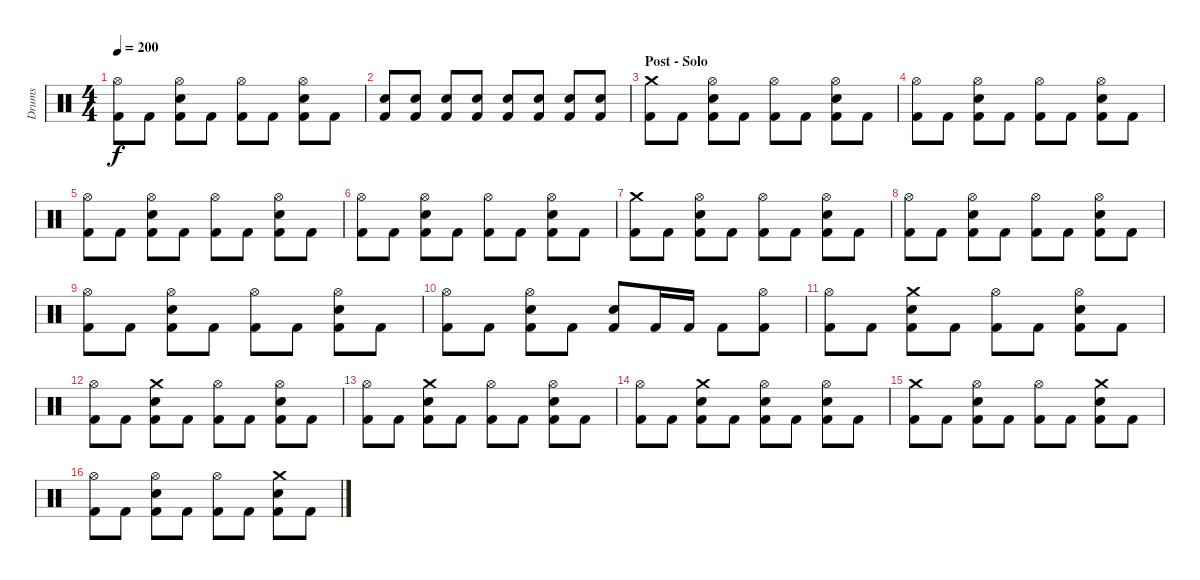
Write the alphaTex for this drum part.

\track ("Drums" "Drums") {instrument percussion}
\staff {score}
\articulation defaults
\ts (4 4)
\tempo 200
\clef neutral
\ks c
("Hi-Hat (open)" "Kick (hit) 2").8{dy f} "Kick (hit) 2".8 ("Hi-Hat (open)" "Snare (hit) 2" "Kick (hit) 2").8 "Kick (hit) 2".8 ("Hi-Hat (open)" "Kick (hit) 2").8 "Kick (hit) 2".8 ("Hi-Hat (open)" "Snare (hit) 2" "Kick (hit) 2").8 "Kick (hit) 2".8 |
("Snare (hit) 2" "Kick (hit) 2").8 ("Snare (hit) 2" "Kick (hit) 2").8 ("Snare (hit) 2" "Kick (hit) 2").8 ("Snare (hit) 2" "Kick (hit) 2").8 ("Snare (hit) 2" "Kick (hit) 2").8 ("Snare (hit) 2" "Kick (hit) 2").8 ("Snare (hit) 2" "Kick (hit) 2").8 ("Snare (hit) 2" "Kick (hit) 2").8 |
\section ("" "Post - Solo")
("Crash medium (hit)" "Kick (hit) 2").8 "Kick (hit) 2".8 ("Hi-Hat (open)" "Snare (hit) 2" "Kick (hit) 2").8 "Kick (hit) 2".8 ("Hi-Hat (open)" "Kick (hit) 2").8 "Kick (hit) 2".8 ("Hi-Hat (open)" "Snare (hit) 2" "Kick (hit) 2").8 "Kick (hit) 2".8 |
("Hi-Hat (open)" "Kick (hit) 2").8 "Kick (hit) 2".8 ("Hi-Hat (open)" "Snare (hit) 2" "Kick (hit) 2").8 "Kick (hit) 2".8 ("Hi-Hat (open)" "Kick (hit) 2").8 "Kick (hit) 2".8 ("Hi-Hat (open)" "Snare (hit) 2" "Kick (hit) 2").8 "Kick (hit) 2".8 |
("Hi-Hat (open)" "Kick (hit) 2").8 "Kick (hit) 2".8 ("Hi-Hat (open)" "Snare (hit) 2" "Kick (hit) 2").8 "Kick (hit) 2".8 ("Hi-Hat (open)" "Kick (hit) 2").8 "Kick (hit) 2".8 ("Hi-Hat (open)" "Snare (hit) 2" "Kick (hit) 2").8 "Kick (hit) 2".8 |
("Hi-Hat (open)" "Kick (hit) 2").8 "Kick (hit) 2".8 ("Hi-Hat (open)" "Snare (hit) 2" "Kick (hit) 2").8 "Kick (hit) 2".8 ("Hi-Hat (open)" "Kick (hit) 2").8 "Kick (hit) 2".8 ("Hi-Hat (open)" "Snare (hit) 2" "Kick (hit) 2").8 "Kick (hit) 2".8 |
("Crash medium (hit)" "Kick (hit) 2").8 "Kick (hit) 2".8 ("Hi-Hat (open)" "Snare (hit) 2" "Kick (hit) 2").8 "Kick (hit) 2".8 ("Hi-Hat (open)" "Kick (hit) 2").8 "Kick (hit) 2".8 ("Hi-Hat (open)" "Snare (hit) 2" "Kick (hit) 2").8 "Kick (hit) 2".8 |
("Hi-Hat (open)" "Kick (hit) 2").8 "Kick (hit) 2".8 ("Hi-Hat (open)" "Snare (hit) 2" "Kick (hit) 2").8 "Kick (hit) 2".8 ("Hi-Hat (open)" "Kick (hit) 2").8 "Kick (hit) 2".8 ("Hi-Hat (open)" "Snare (hit) 2" "Kick (hit) 2").8 "Kick (hit) 2".8 |
("Hi-Hat (open)" "Kick (hit) 2").8 "Kick (hit) 2".8 ("Hi-Hat (open)" "Snare (hit) 2" "Kick (hit) 2").8 "Kick (hit) 2".8 ("Hi-Hat (open)" "Kick (hit) 2").8 "Kick (hit) 2".8 ("Hi-Hat (open)" "Snare (hit) 2" "Kick (hit) 2").8 "Kick (hit) 2".8 |
("Hi-Hat (open)" "Kick (hit) 2").8 "Kick (hit) 2".8 ("Hi-Hat (open)" "Snare (hit) 2" "Kick (hit) 2").8 "Kick (hit) 2".8 ("Snare (hit) 2" "Kick (hit) 2").8 "Kick (hit) 2".16 "Kick (hit) 2".16 "Kick (hit) 2".8 ("Hi-Hat (open)" "Kick (hit) 2").8 |
("Hi-Hat (open)" "Kick (hit) 2").8 "Kick (hit) 2".8 ("Crash medium (hit)" "Snare (hit) 2" "Kick (hit) 2").8 "Kick (hit) 2".8 ("Hi-Hat (open)" "Kick (hit) 2").8 "Kick (hit) 2".8 ("Hi-Hat (open)" "Snare (hit) 2" "Kick (hit) 2").8 "Kick (hit) 2".8 |
("Hi-Hat (open)" "Kick (hit) 2").8 "Kick (hit) 2".8 ("Crash medium (hit)" "Snare (hit) 2" "Kick (hit) 2").8 "Kick (hit) 2".8 ("Hi-Hat (open)" "Kick (hit) 2").8 "Kick (hit) 2".8 ("Hi-Hat (open)" "Snare (hit) 2" "Kick (hit) 2").8 "Kick (hit) 2".8 |
("Hi-Hat (open)" "Kick (hit) 2").8 "Kick (hit) 2".8 ("Crash medium (hit)" "Snare (hit) 2" "Kick (hit) 2").8 "Kick (hit) 2".8 ("Hi-Hat (open)" "Kick (hit) 2").8 "Kick (hit) 2".8 ("Hi-Hat (open)" "Snare (hit) 2" "Kick (hit) 2").8 "Kick (hit) 2".8 |
("Hi-Hat (open)" "Kick (hit) 2").8 "Kick (hit) 2".8 ("Crash medium (hit)" "Snare (hit) 2" "Kick (hit) 2").8 "Kick (hit) 2".8 ("Hi-Hat (open)" "Snare (hit) 2" "Kick (hit) 2").8 "Kick (hit) 2".8 ("Hi-Hat (open)" "Snare (hit) 2" "Kick (hit) 2").8 "Kick (hit) 2".8 |
("Crash medium (hit)" "Kick (hit) 2").8 "Kick (hit) 2".8 ("Hi-Hat (open)" "Snare (hit) 2" "Kick (hit) 2").8 "Kick (hit) 2".8 ("Hi-Hat (open)" "Kick (hit) 2").8 "Kick (hit) 2".8 ("Crash medium (hit)" "Snare (hit) 2" "Kick (hit) 2").8 "Kick (hit) 2".8 |
("Hi-Hat (open)" "Kick (hit) 2").8 "Kick (hit) 2".8 ("Hi-Hat (open)" "Snare (hit) 2" "Kick (hit) 2").8 "Kick (hit) 2".8 ("Hi-Hat (open)" "Kick (hit) 2").8 "Kick (hit) 2".8 ("Crash medium (hit)" "Snare (hit) 2" "Kick (hit) 2").8 "Kick (hit) 2".8
